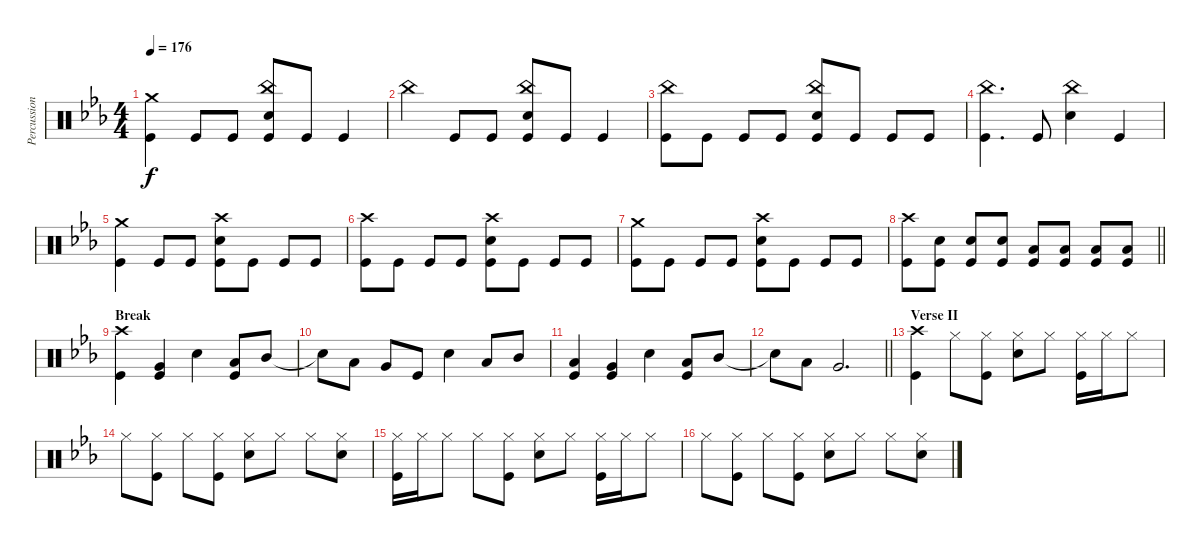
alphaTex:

\track ("Percussion" "Percussion") {instrument percussion}
\staff {score}
\articulation defaults
\ts (4 4)
\tempo 176
\clef neutral
\ks eb
("Crash medium (hit)" "Kick (hit)").4{dy f} "Kick (hit)".8 "Kick (hit)".8 ("China (hit)" "Electric Snare (hit)" "Kick (hit)").8 "Kick (hit)".8 "Kick (hit)".4 |
"China (hit)".4 "Kick (hit)".8 "Kick (hit)".8 ("China (hit)" "Electric Snare (hit)" "Kick (hit)").8 "Kick (hit)".8 "Kick (hit)".4 |
("China (hit)" "Kick (hit)").8 "Kick (hit)".8 "Kick (hit)".8 "Kick (hit)".8 ("China (hit)" "Electric Snare (hit)" "Kick (hit)").8 "Kick (hit)".8 "Kick (hit)".8 "Kick (hit)".8 |
("China (hit)" "Kick (hit)").4{d} "Kick (hit)".8 ("China (hit)" "Electric Snare (hit)").4 "Kick (hit)".4 |
("Crash medium (hit)" "Kick (hit)").4 "Kick (hit)".8 "Kick (hit)".8 ("Crash high (hit)" "Electric Snare (hit)" "Kick (hit)").8 "Kick (hit)".8 "Kick (hit)".8 "Kick (hit)".8 |
("Crash high (hit)" "Kick (hit)").8 "Kick (hit)".8 "Kick (hit)".8 "Kick (hit)".8 ("Crash high (hit)" "Electric Snare (hit)" "Kick (hit)").8 "Kick (hit)".8 "Kick (hit)".8 "Kick (hit)".8 |
("Crash medium (hit)" "Kick (hit)").8 "Kick (hit)".8 "Kick (hit)".8 "Kick (hit)".8 ("Crash high (hit)" "Electric Snare (hit)" "Kick (hit)").8 "Kick (hit)".8 "Kick (hit)".8 "Kick (hit)".8 |
\barLineRight lightlight
("Crash high (hit)" "Kick (hit)").8 ("Electric Snare (hit)" "Kick (hit)").8 ("Electric Snare (hit)" "Kick (hit)").8 ("Electric Snare (hit)" "Kick (hit)").8 ("Low Floor Tom (hit)" "Kick (hit)").8 ("Low Floor Tom (hit)" "Kick (hit)").8 ("Low Floor Tom (hit)" "Kick (hit)").8 ("Low Floor Tom (hit)" "Kick (hit)").8 |
\section ("" "Break")
("Crash high (hit)" "Kick (hit)").4 ("Very Low Tom (hit)" "Kick (hit)").4 "Electric Snare (hit)".4 ("Low Tom (hit)" "Kick (hit)").8 "Mid Tom (hit)".8 |
"Snare (hit)"{t}.8 "Low Tom (hit)".8 "Very Low Tom (hit)".8 "Kick (hit)".8 "Electric Snare (hit)".4 "Low Tom (hit)".8 "Mid Tom (hit)".8 |
("Low Tom (hit)" "Kick (hit)").4 ("Very Low Tom (hit)" "Kick (hit)").4 "Electric Snare (hit)".4 ("Low Tom (hit)" "Kick (hit)").8 "Mid Tom (hit)".8 |
\barLineRight lightlight "Snare (hit)"{t}.8 "Low Tom (hit)".8 "Very Low Tom (hit)".2{d}
|
\section ("" "Verse II")
("Crash high (hit)" "Kick (hit)").4 "Hi-Hat (closed)".8 ("Hi-Hat (closed)" "Kick (hit)").8 ("Hi-Hat (closed)" "Electric Snare (hit)").8 "Hi-Hat (closed)".8 ("Hi-Hat (closed)" "Kick (hit)").16 "Hi-Hat (closed)".16 "Hi-Hat (closed)".8 |
"Hi-Hat (closed)".8 ("Hi-Hat (closed)" "Kick (hit)").8 "Hi-Hat (closed)".8 ("Hi-Hat (closed)" "Kick (hit)").8 ("Hi-Hat (closed)" "Electric Snare (hit)").8 "Hi-Hat (closed)".8 "Hi-Hat (closed)".8 ("Hi-Hat (closed)" "Electric Snare (hit)").8 |
("Hi-Hat (closed)" "Kick (hit)").16 "Hi-Hat (closed)".16 "Hi-Hat (closed)".8 "Hi-Hat (closed)".8 ("Hi-Hat (closed)" "Kick (hit)").8 ("Hi-Hat (closed)" "Electric Snare (hit)").8 "Hi-Hat (closed)".8 ("Hi-Hat (closed)" "Kick (hit)").16 "Hi-Hat (closed)".16 "Hi-Hat (closed)".8 |
"Hi-Hat (closed)".8 ("Hi-Hat (closed)" "Kick (hit)").8 "Hi-Hat (closed)".8 ("Hi-Hat (closed)" "Kick (hit)").8 ("Hi-Hat (closed)" "Electric Snare (hit)").8 "Hi-Hat (closed)".8 "Hi-Hat (closed)".8 ("Hi-Hat (closed)" "Electric Snare (hit)").8
